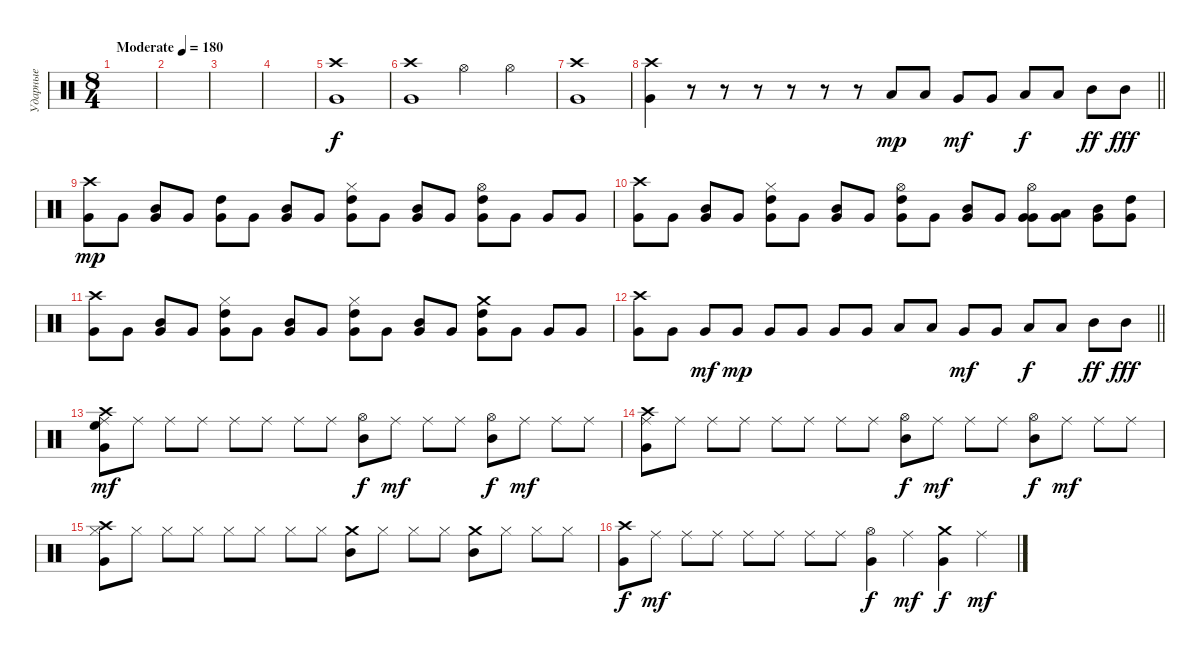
\track ("Ударные" "Ударные") {instrument percussion}
\staff {score}
\articulation defaults
\ts (8 4)
\tempo (180 "Moderate")
\clef neutral
\ks c
|
|
|
|
("Crash high (hit)" "Very Low Tom (hit)").1 |
("Crash high (hit)" "Very Low Tom (hit)").1 "Hi-Hat (open)".2 "Hi-Hat (open)".2 |
("Crash high (hit)" "Very Low Tom (hit)").1 |
\barLineRight lightlight
("Crash high (hit)" "Very Low Tom (hit)").4 r.8 r.8 r.8 r.8 r.8 r.8 "Low Floor Tom (hit)".8{dy mp} "Low Floor Tom (hit)".8 "Very Low Tom (hit)".8{dy mf} "Very Low Tom (hit)".8 "Low Tom (hit)".8{dy f} "Low Tom (hit)".8 "Mid Tom (hit)".8{dy ff} "Mid Tom (hit)".8{dy fff} |
\section ("" "")
("Crash high (hit)" "Very Low Tom (hit)").8{dy mp} "Very Low Tom (hit)".8 ("Mid Tom (hit)" "Very Low Tom (hit)").8 "Very Low Tom (hit)".8 ("High Tom (hit)" "Very Low Tom (hit)").8 "Very Low Tom (hit)".8 ("Mid Tom (hit)" "Very Low Tom (hit)").8 "Very Low Tom (hit)".8 ("Hi-Hat (closed)" "High Tom (hit)" "Very Low Tom (hit)").8 "Very Low Tom (hit)".8 ("Mid Tom (hit)" "Very Low Tom (hit)").8 "Very Low Tom (hit)".8 ("Hi-Hat (open)" "High Tom (hit)" "Very Low Tom (hit)").8 "Very Low Tom (hit)".8 "Very Low Tom (hit)".8 "Very Low Tom (hit)".8 |
("Crash high (hit)" "Very Low Tom (hit)").8 "Very Low Tom (hit)".8 ("Mid Tom (hit)" "Very Low Tom (hit)").8 "Very Low Tom (hit)".8 ("Hi-Hat (closed)" "High Tom (hit)" "Very Low Tom (hit)").8 "Very Low Tom (hit)".8 ("Mid Tom (hit)" "Very Low Tom (hit)").8 "Very Low Tom (hit)".8 ("Hi-Hat (open)" "High Tom (hit)" "Very Low Tom (hit)").8 "Very Low Tom (hit)".8 ("Mid Tom (hit)" "Very Low Tom (hit)").8 "Very Low Tom (hit)".8 ("Hi-Hat (open)" "Very Low Tom (hit)" "Very Low Tom (hit)").8 ("Low Tom (hit)" "Very Low Tom (hit)").8 ("Mid Tom (hit)" "Very Low Tom (hit)").8 ("High Tom (hit)" "Very Low Tom (hit)").8 |
("Crash high (hit)" "Very Low Tom (hit)").8 "Very Low Tom (hit)".8 ("Mid Tom (hit)" "Very Low Tom (hit)").8 "Very Low Tom (hit)".8 ("Hi-Hat (closed)" "High Tom (hit)" "Very Low Tom (hit)").8 "Very Low Tom (hit)".8 ("Mid Tom (hit)" "Very Low Tom (hit)").8 "Very Low Tom (hit)".8 ("Hi-Hat (closed)" "High Tom (hit)" "Very Low Tom (hit)").8 "Very Low Tom (hit)".8 ("Mid Tom (hit)" "Very Low Tom (hit)").8 "Very Low Tom (hit)".8 ("Crash medium (hit)" "High Tom (hit)" "Very Low Tom (hit)").8 "Very Low Tom (hit)".8 "Very Low Tom (hit)".8 "Very Low Tom (hit)".8 |
\barLineRight lightlight
("Crash high (hit)" "Very Low Tom (hit)").8 "Very Low Tom (hit)".8 "Very Low Tom (hit)".8{dy mf} "Very Low Tom (hit)".8{dy mp} "Very Low Tom (hit)".8 "Very Low Tom (hit)".8 "Very Low Tom (hit)".8 "Very Low Tom (hit)".8 "Low Floor Tom (hit)".8 "Low Floor Tom (hit)".8 "Very Low Tom (hit)".8{dy mf} "Very Low Tom (hit)".8 "Low Tom (hit)".8{dy f} "Low Tom (hit)".8 "Mid Tom (hit)".8{dy ff} "Mid Tom (hit)".8{dy fff} |
\section ("" "")
("High Floor Tom (hit)" "Ride (middle)" "Crash high (hit)" "Very Low Tom (hit)").8{dy mf} "Ride (middle)".8 "Ride (middle)".8 "Ride (middle)".8 "Ride (middle)".8 "Ride (middle)".8 "Ride (middle)".8 "Ride (middle)".8 ("Hi-Hat (open)" "Mid Tom (hit)").8{dy f} "Ride (middle)".8{dy mf} "Ride (middle)".8 "Ride (middle)".8 ("Hi-Hat (open)" "Mid Tom (hit)").8{dy f} "Ride (middle)".8{dy mf} "Ride (middle)".8 "Ride (middle)".8 |
("Ride (middle)" "Crash high (hit)" "Very Low Tom (hit)").8 "Ride (middle)".8 "Ride (middle)".8 "Ride (middle)".8 "Ride (middle)".8 "Ride (middle)".8 "Ride (middle)".8 "Ride (middle)".8 ("Hi-Hat (open)" "Mid Tom (hit)").8{dy f} "Ride (middle)".8{dy mf} "Ride (middle)".8 "Ride (middle)".8 ("Hi-Hat (open)" "Mid Tom (hit)").8{dy f} "Ride (middle)".8{dy mf} "Ride (middle)".8 "Ride (middle)".8 |
("Hi-Hat (closed)" "Crash high (hit)" "Very Low Tom (hit)").8 "Hi-Hat (closed)".8 "Hi-Hat (closed)".8 "Hi-Hat (closed)".8 "Hi-Hat (closed)".8 "Hi-Hat (closed)".8 "Hi-Hat (closed)".8 "Hi-Hat (closed)".8 ("Crash medium (hit)" "Mid Tom (hit)").8 "Hi-Hat (closed)".8 "Hi-Hat (closed)".8 "Hi-Hat (closed)".8 ("Crash medium (hit)" "Mid Tom (hit)").8 "Hi-Hat (closed)".8 "Hi-Hat (closed)".8 "Hi-Hat (closed)".8 |
("Crash high (hit)" "Very Low Tom (hit)").8{dy f} "Ride (middle)".8{dy mf} "Ride (middle)".8 "Ride (middle)".8 "Ride (middle)".8 "Ride (middle)".8 "Ride (middle)".8 "Ride (middle)".8 ("Hi-Hat (open)" "Very Low Tom (hit)").4{dy f} "Ride (middle)".4{dy mf} ("Crash medium (hit)" "Very Low Tom (hit)").4{dy f} "Ride (middle)".4{dy mf}
